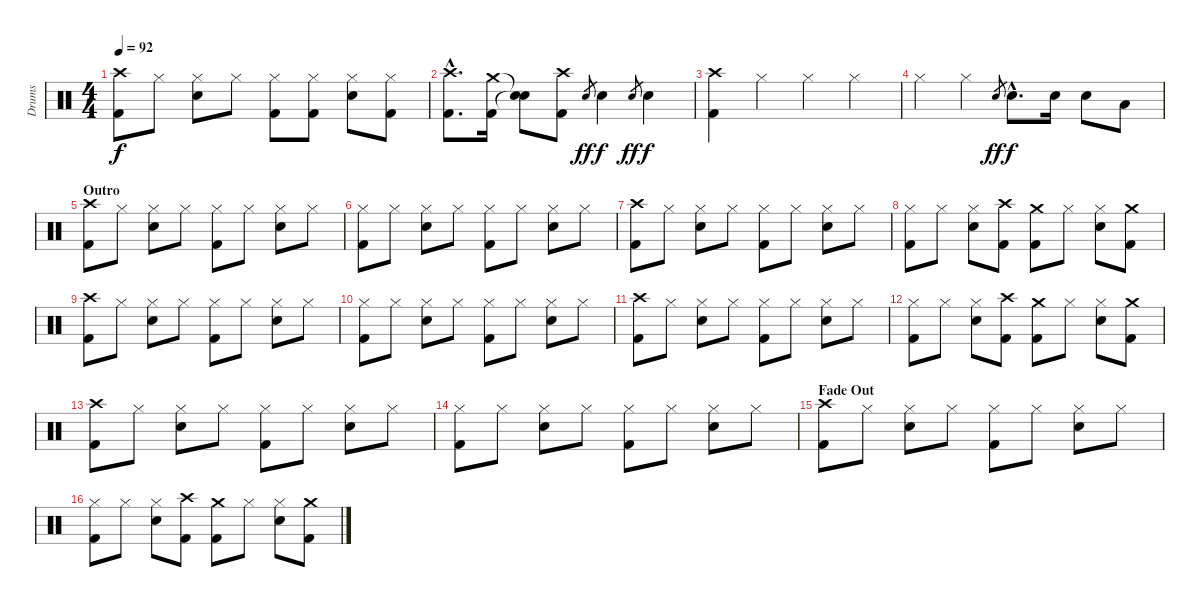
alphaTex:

\track ("Drums" "Drums") {instrument percussion}
\staff {score}
\articulation defaults
\ts (4 4)
\tempo 92
\clef neutral
\ks c
("Crash high (hit)" "Kick (hit) 2").8{dy f} "Hi-Hat (closed)".8 ("Hi-Hat (closed)" "Snare (hit) 2").8 "Hi-Hat (closed)".8 ("Hi-Hat (closed)" "Kick (hit) 2").8 ("Hi-Hat (closed)" "Kick (hit) 2").8 ("Hi-Hat (closed)" "Snare (hit) 2").8 ("Hi-Hat (closed)" "Kick (hit) 2").8 |
("Crash high (hit)"{hac} "Kick (hit) 2"{hac}).8{d} ("Crash medium (hit)" "Kick (hit) 2").16 ("Snare (hit)"{t} "Snare (hit)"{t}).8 ("Crash high (hit)" "Kick (hit) 2").8 "Snare (hit) 2".8{gr dy ff} "Snare (hit) 2".4{dy f} "Snare (hit) 2".8{gr dy ff} "Snare (hit) 2".4{dy f} |
("Crash high (hit)" "Kick (hit) 2").4 "Hi-Hat (closed)".4 "Hi-Hat (closed)".4 "Hi-Hat (closed)".4 |
"Hi-Hat (closed)".4 "Hi-Hat (closed)".4 "Snare (hit) 2".8{gr dy ff} "Snare (hit) 2"{hac}.8{d dy f} "Snare (hit) 2".16 "Snare (hit) 2".8 "Low Tom (hit)".8 |
\section ("" "Outro")
("Crash high (hit)" "Kick (hit) 2").8 "Hi-Hat (closed)".8 ("Hi-Hat (closed)" "Snare (hit) 2").8 "Hi-Hat (closed)".8 ("Hi-Hat (closed)" "Kick (hit) 2").8 "Hi-Hat (closed)".8 ("Hi-Hat (closed)" "Snare (hit) 2").8 "Hi-Hat (closed)".8 |
("Hi-Hat (closed)" "Kick (hit) 2").8 "Hi-Hat (closed)".8 ("Hi-Hat (closed)" "Snare (hit) 2").8 "Hi-Hat (closed)".8 ("Hi-Hat (closed)" "Kick (hit) 2").8 "Hi-Hat (closed)".8 ("Hi-Hat (closed)" "Snare (hit) 2").8 "Hi-Hat (closed)".8 |
("Crash high (hit)" "Kick (hit) 2").8 "Hi-Hat (closed)".8 ("Hi-Hat (closed)" "Snare (hit) 2").8 "Hi-Hat (closed)".8 ("Hi-Hat (closed)" "Kick (hit) 2").8 "Hi-Hat (closed)".8 ("Hi-Hat (closed)" "Snare (hit) 2").8 "Hi-Hat (closed)".8 |
("Hi-Hat (closed)" "Kick (hit) 2").8 "Hi-Hat (closed)".8 ("Hi-Hat (closed)" "Snare (hit) 2").8 ("Crash high (hit)" "Kick (hit) 2").8 ("Crash medium (hit)" "Kick (hit) 2").8 "Hi-Hat (closed)".8 ("Hi-Hat (closed)" "Snare (hit) 2").8 ("Crash medium (hit)" "Kick (hit) 2").8 |
("Crash high (hit)" "Kick (hit) 2").8 "Hi-Hat (closed)".8 ("Hi-Hat (closed)" "Snare (hit) 2").8 "Hi-Hat (closed)".8 ("Hi-Hat (closed)" "Kick (hit) 2").8 "Hi-Hat (closed)".8 ("Hi-Hat (closed)" "Snare (hit) 2").8 "Hi-Hat (closed)".8 |
("Hi-Hat (closed)" "Kick (hit) 2").8 "Hi-Hat (closed)".8 ("Hi-Hat (closed)" "Snare (hit) 2").8 "Hi-Hat (closed)".8 ("Hi-Hat (closed)" "Kick (hit) 2").8 "Hi-Hat (closed)".8 ("Hi-Hat (closed)" "Snare (hit) 2").8 "Hi-Hat (closed)".8 |
("Crash high (hit)" "Kick (hit) 2").8 "Hi-Hat (closed)".8 ("Hi-Hat (closed)" "Snare (hit) 2").8 "Hi-Hat (closed)".8 ("Hi-Hat (closed)" "Kick (hit) 2").8 "Hi-Hat (closed)".8 ("Hi-Hat (closed)" "Snare (hit) 2").8 "Hi-Hat (closed)".8 |
("Hi-Hat (closed)" "Kick (hit) 2").8 "Hi-Hat (closed)".8 ("Hi-Hat (closed)" "Snare (hit) 2").8 ("Crash high (hit)" "Kick (hit) 2").8 ("Crash medium (hit)" "Kick (hit) 2").8 "Hi-Hat (closed)".8 ("Hi-Hat (closed)" "Snare (hit) 2").8 ("Crash medium (hit)" "Kick (hit) 2").8 |
("Crash high (hit)" "Kick (hit) 2").8 "Hi-Hat (closed)".8 ("Hi-Hat (closed)" "Snare (hit) 2").8 "Hi-Hat (closed)".8 ("Hi-Hat (closed)" "Kick (hit) 2").8 "Hi-Hat (closed)".8 ("Hi-Hat (closed)" "Snare (hit) 2").8 "Hi-Hat (closed)".8 |
("Hi-Hat (closed)" "Kick (hit) 2").8 "Hi-Hat (closed)".8 ("Hi-Hat (closed)" "Snare (hit) 2").8 "Hi-Hat (closed)".8 ("Hi-Hat (closed)" "Kick (hit) 2").8 "Hi-Hat (closed)".8 ("Hi-Hat (closed)" "Snare (hit) 2").8 "Hi-Hat (closed)".8 |
\section ("" "Fade Out")
("Crash high (hit)" "Kick (hit) 2").8{volume 8} "Hi-Hat (closed)".8 ("Hi-Hat (closed)" "Snare (hit) 2").8 "Hi-Hat (closed)".8 ("Hi-Hat (closed)" "Kick (hit) 2").8 "Hi-Hat (closed)".8 ("Hi-Hat (closed)" "Snare (hit) 2").8 "Hi-Hat (closed)".8 |
("Hi-Hat (closed)" "Kick (hit) 2").8 "Hi-Hat (closed)".8 ("Hi-Hat (closed)" "Snare (hit) 2").8 ("Crash high (hit)" "Kick (hit) 2").8 ("Crash medium (hit)" "Kick (hit) 2").8 "Hi-Hat (closed)".8 ("Hi-Hat (closed)" "Snare (hit) 2").8 ("Crash medium (hit)" "Kick (hit) 2").8
